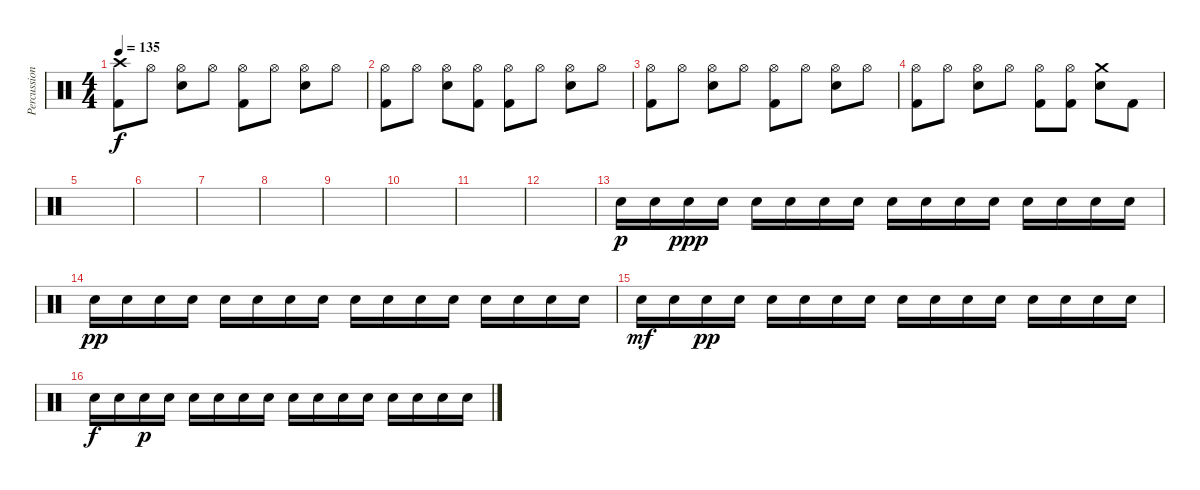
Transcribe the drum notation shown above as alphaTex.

\track ("Percussion" "Percussion") {instrument percussion}
\staff {score}
\articulation defaults
\ts (4 4)
\tempo 135
\clef neutral
\ks c
("Crash high (hit)" "Kick (hit) 2").8{dy f} "Hi-Hat (open)".8 ("Hi-Hat (open)" "Electric Snare (hit)").8 "Hi-Hat (open)".8 ("Hi-Hat (open)" "Kick (hit) 2").8 "Hi-Hat (open)".8 ("Hi-Hat (open)" "Electric Snare (hit)").8 "Hi-Hat (open)".8 |
("Hi-Hat (open)" "Kick (hit) 2").8 "Hi-Hat (open)".8 ("Hi-Hat (open)" "Electric Snare (hit)").8 ("Hi-Hat (open)" "Kick (hit) 2").8 ("Hi-Hat (open)" "Kick (hit) 2").8 "Hi-Hat (open)".8 ("Hi-Hat (open)" "Electric Snare (hit)").8 "Hi-Hat (open)".8 |
("Hi-Hat (open)" "Kick (hit) 2").8 "Hi-Hat (open)".8 ("Hi-Hat (open)" "Electric Snare (hit)").8 "Hi-Hat (open)".8 ("Hi-Hat (open)" "Kick (hit) 2").8 "Hi-Hat (open)".8 ("Hi-Hat (open)" "Electric Snare (hit)").8 "Hi-Hat (open)".8 |
("Hi-Hat (open)" "Kick (hit) 2").8 "Hi-Hat (open)".8 ("Hi-Hat (open)" "Electric Snare (hit)").8 "Hi-Hat (open)".8 ("Hi-Hat (open)" "Kick (hit) 2").8 ("Hi-Hat (open)" "Kick (hit) 2").8 ("Crash medium (hit)" "Electric Snare (hit)").8 "Kick (hit) 2".8 |
|
|
|
|
|
|
|
|
"Electric Snare (hit)".16{dy p} "Electric Snare (hit)".16 "Snare (hit) 2".16{dy ppp} "Snare (hit) 2".16 "Snare (hit) 2".16 "Snare (hit) 2".16 "Snare (hit) 2".16 "Snare (hit) 2".16 "Snare (hit) 2".16 "Snare (hit) 2".16 "Snare (hit) 2".16 "Snare (hit) 2".16 "Snare (hit) 2".16 "Snare (hit) 2".16 "Snare (hit) 2".16 "Snare (hit) 2".16 |
"Snare (hit) 2".16{dy pp} "Snare (hit) 2".16 "Snare (hit) 2".16 "Snare (hit) 2".16 "Snare (hit) 2".16 "Snare (hit) 2".16 "Snare (hit) 2".16 "Snare (hit) 2".16 "Snare (hit) 2".16 "Snare (hit) 2".16 "Snare (hit) 2".16 "Snare (hit) 2".16 "Snare (hit) 2".16 "Snare (hit) 2".16 "Snare (hit) 2".16 "Snare (hit) 2".16 |
"Electric Snare (hit)".16{dy mf} "Electric Snare (hit)".16 "Snare (hit) 2".16{dy pp} "Snare (hit) 2".16 "Snare (hit) 2".16 "Snare (hit) 2".16 "Snare (hit) 2".16 "Snare (hit) 2".16 "Snare (hit) 2".16 "Snare (hit) 2".16 "Snare (hit) 2".16 "Snare (hit) 2".16 "Snare (hit) 2".16 "Snare (hit) 2".16 "Snare (hit) 2".16 "Snare (hit) 2".16 |
"Electric Snare (hit)".16{dy f} "Electric Snare (hit)".16 "Snare (hit) 2".16{dy p} "Snare (hit) 2".16 "Snare (hit) 2".16 "Snare (hit) 2".16 "Snare (hit) 2".16 "Snare (hit) 2".16 "Snare (hit) 2".16 "Snare (hit) 2".16 "Snare (hit) 2".16 "Snare (hit) 2".16 "Snare (hit) 2".16 "Snare (hit) 2".16 "Snare (hit) 2".16 "Snare (hit) 2".16
